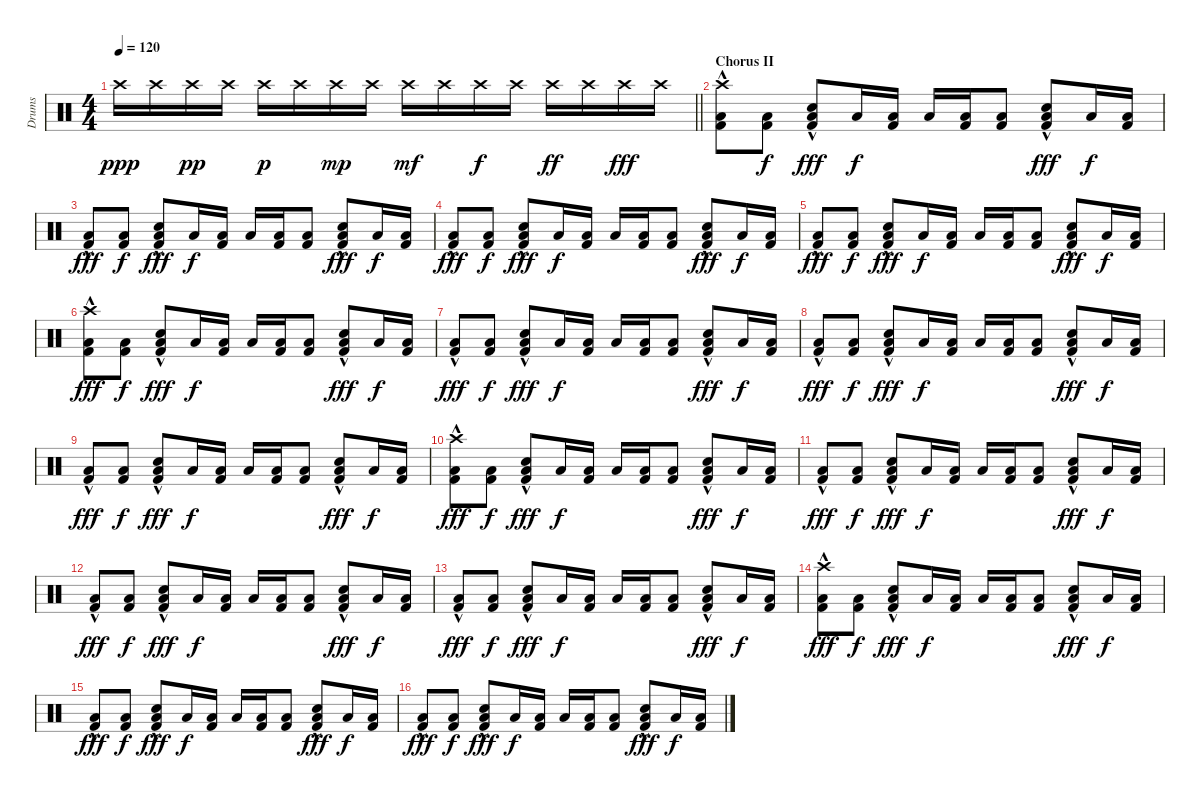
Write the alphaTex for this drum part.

\track ("Drums" "Drums") {instrument percussion}
\staff {score}
\articulation defaults
\ts (4 4)
\tempo 120
\clef neutral
\barLineRight lightlight
\ks c "Crash high (hit)".16{dy ppp} "Crash high (hit)".16 "Crash high (hit)".16{dy pp} "Crash high (hit)".16 "Crash high (hit)".16{dy p} "Crash high (hit)".16 "Crash high (hit)".16{dy mp} "Crash high (hit)".16 "Crash high (hit)".16{dy mf} "Crash high (hit)".16 "Crash high (hit)".16{dy f} "Crash high (hit)".16 "Crash high (hit)".16{dy ff} "Crash high (hit)".16 "Crash high (hit)".16{dy fff} "Crash high (hit)".16
|
\section ("" "Chorus II")
("Crash high (hit)"{hac} "Low Floor Tom (hit)"{hac} "Kick (hit) 2"{hac}).8 ("Low Floor Tom (hit)" "Kick (hit) 2").8{dy f} ("Snare (hit) 2"{hac} "Low Floor Tom (hit)"{hac} "Kick (hit) 2"{hac}).8{dy fff} "Low Tom (hit)".16{dy f} ("Low Floor Tom (hit)" "Kick (hit) 2").16 "Low Tom (hit)".16 ("Low Floor Tom (hit)" "Kick (hit) 2").16 ("Low Tom (hit)" "Kick (hit) 2").8 ("Snare (hit) 2"{hac} "Low Floor Tom (hit)"{hac} "Kick (hit) 2"{hac}).8{dy fff} "Low Floor Tom (hit)".16{dy f} ("Low Floor Tom (hit)" "Kick (hit) 2").16 |
("Low Floor Tom (hit)"{hac} "Kick (hit) 2"{hac}).8{dy fff} ("Low Floor Tom (hit)" "Kick (hit) 2").8{dy f} ("Snare (hit) 2"{hac} "Low Floor Tom (hit)"{hac} "Kick (hit) 2"{hac}).8{dy fff} "Low Tom (hit)".16{dy f} ("Low Floor Tom (hit)" "Kick (hit) 2").16 "Low Tom (hit)".16 ("Low Floor Tom (hit)" "Kick (hit) 2").16 ("Low Tom (hit)" "Kick (hit) 2").8 ("Snare (hit) 2"{hac} "Low Floor Tom (hit)"{hac} "Kick (hit) 2"{hac}).8{dy fff} "Low Floor Tom (hit)".16{dy f} ("Low Floor Tom (hit)" "Kick (hit) 2").16 |
("Low Floor Tom (hit)"{hac} "Kick (hit) 2"{hac}).8{dy fff} ("Low Floor Tom (hit)" "Kick (hit) 2").8{dy f} ("Snare (hit) 2"{hac} "Low Floor Tom (hit)"{hac} "Kick (hit) 2"{hac}).8{dy fff} "Low Tom (hit)".16{dy f} ("Low Floor Tom (hit)" "Kick (hit) 2").16 "Low Tom (hit)".16 ("Low Floor Tom (hit)" "Kick (hit) 2").16 ("Low Tom (hit)" "Kick (hit) 2").8 ("Snare (hit) 2"{hac} "Low Floor Tom (hit)"{hac} "Kick (hit) 2"{hac}).8{dy fff} "Low Floor Tom (hit)".16{dy f} ("Low Floor Tom (hit)" "Kick (hit) 2").16 |
("Low Floor Tom (hit)"{hac} "Kick (hit) 2"{hac}).8{dy fff} ("Low Floor Tom (hit)" "Kick (hit) 2").8{dy f} ("Snare (hit) 2"{hac} "Low Floor Tom (hit)"{hac} "Kick (hit) 2"{hac}).8{dy fff} "Low Tom (hit)".16{dy f} ("Low Floor Tom (hit)" "Kick (hit) 2").16 "Low Tom (hit)".16 ("Low Floor Tom (hit)" "Kick (hit) 2").16 ("Low Tom (hit)" "Kick (hit) 2").8 ("Snare (hit) 2"{hac} "Low Floor Tom (hit)"{hac} "Kick (hit) 2"{hac}).8{dy fff} "Low Floor Tom (hit)".16{dy f} ("Low Floor Tom (hit)" "Kick (hit) 2").16 |
("Crash high (hit)"{hac} "Low Floor Tom (hit)"{hac} "Kick (hit) 2"{hac}).8{dy fff} ("Low Floor Tom (hit)" "Kick (hit) 2").8{dy f} ("Snare (hit) 2"{hac} "Low Floor Tom (hit)"{hac} "Kick (hit) 2"{hac}).8{dy fff} "Low Tom (hit)".16{dy f} ("Low Floor Tom (hit)" "Kick (hit) 2").16 "Low Tom (hit)".16 ("Low Floor Tom (hit)" "Kick (hit) 2").16 ("Low Tom (hit)" "Kick (hit) 2").8 ("Snare (hit) 2"{hac} "Low Floor Tom (hit)"{hac} "Kick (hit) 2"{hac}).8{dy fff} "Low Floor Tom (hit)".16{dy f} ("Low Floor Tom (hit)" "Kick (hit) 2").16 |
("Low Floor Tom (hit)"{hac} "Kick (hit) 2"{hac}).8{dy fff} ("Low Floor Tom (hit)" "Kick (hit) 2").8{dy f} ("Snare (hit) 2"{hac} "Low Floor Tom (hit)"{hac} "Kick (hit) 2"{hac}).8{dy fff} "Low Tom (hit)".16{dy f} ("Low Floor Tom (hit)" "Kick (hit) 2").16 "Low Tom (hit)".16 ("Low Floor Tom (hit)" "Kick (hit) 2").16 ("Low Tom (hit)" "Kick (hit) 2").8 ("Snare (hit) 2"{hac} "Low Floor Tom (hit)"{hac} "Kick (hit) 2"{hac}).8{dy fff} "Low Floor Tom (hit)".16{dy f} ("Low Floor Tom (hit)" "Kick (hit) 2").16 |
("Low Floor Tom (hit)"{hac} "Kick (hit) 2"{hac}).8{dy fff} ("Low Floor Tom (hit)" "Kick (hit) 2").8{dy f} ("Snare (hit) 2"{hac} "Low Floor Tom (hit)"{hac} "Kick (hit) 2"{hac}).8{dy fff} "Low Tom (hit)".16{dy f} ("Low Floor Tom (hit)" "Kick (hit) 2").16 "Low Tom (hit)".16 ("Low Floor Tom (hit)" "Kick (hit) 2").16 ("Low Tom (hit)" "Kick (hit) 2").8 ("Snare (hit) 2"{hac} "Low Floor Tom (hit)"{hac} "Kick (hit) 2"{hac}).8{dy fff} "Low Floor Tom (hit)".16{dy f} ("Low Floor Tom (hit)" "Kick (hit) 2").16 |
("Low Floor Tom (hit)"{hac} "Kick (hit) 2"{hac}).8{dy fff} ("Low Floor Tom (hit)" "Kick (hit) 2").8{dy f} ("Snare (hit) 2"{hac} "Low Floor Tom (hit)"{hac} "Kick (hit) 2"{hac}).8{dy fff} "Low Tom (hit)".16{dy f} ("Low Floor Tom (hit)" "Kick (hit) 2").16 "Low Tom (hit)".16 ("Low Floor Tom (hit)" "Kick (hit) 2").16 ("Low Tom (hit)" "Kick (hit) 2").8 ("Snare (hit) 2"{hac} "Low Floor Tom (hit)"{hac} "Kick (hit) 2"{hac}).8{dy fff} "Low Floor Tom (hit)".16{dy f} ("Low Floor Tom (hit)" "Kick (hit) 2").16 |
("Crash high (hit)"{hac} "Low Floor Tom (hit)"{hac} "Kick (hit) 2"{hac}).8{dy fff} ("Low Floor Tom (hit)" "Kick (hit) 2").8{dy f} ("Snare (hit) 2"{hac} "Low Floor Tom (hit)"{hac} "Kick (hit) 2"{hac}).8{dy fff} "Low Tom (hit)".16{dy f} ("Low Floor Tom (hit)" "Kick (hit) 2").16 "Low Tom (hit)".16 ("Low Floor Tom (hit)" "Kick (hit) 2").16 ("Low Tom (hit)" "Kick (hit) 2").8 ("Snare (hit) 2"{hac} "Low Floor Tom (hit)"{hac} "Kick (hit) 2"{hac}).8{dy fff} "Low Floor Tom (hit)".16{dy f} ("Low Floor Tom (hit)" "Kick (hit) 2").16 |
("Low Floor Tom (hit)"{hac} "Kick (hit) 2"{hac}).8{dy fff} ("Low Floor Tom (hit)" "Kick (hit) 2").8{dy f} ("Snare (hit) 2"{hac} "Low Floor Tom (hit)"{hac} "Kick (hit) 2"{hac}).8{dy fff} "Low Tom (hit)".16{dy f} ("Low Floor Tom (hit)" "Kick (hit) 2").16 "Low Tom (hit)".16 ("Low Floor Tom (hit)" "Kick (hit) 2").16 ("Low Tom (hit)" "Kick (hit) 2").8 ("Snare (hit) 2"{hac} "Low Floor Tom (hit)"{hac} "Kick (hit) 2"{hac}).8{dy fff} "Low Floor Tom (hit)".16{dy f} ("Low Floor Tom (hit)" "Kick (hit) 2").16 |
("Low Floor Tom (hit)"{hac} "Kick (hit) 2"{hac}).8{dy fff} ("Low Floor Tom (hit)" "Kick (hit) 2").8{dy f} ("Snare (hit) 2"{hac} "Low Floor Tom (hit)"{hac} "Kick (hit) 2"{hac}).8{dy fff} "Low Tom (hit)".16{dy f} ("Low Floor Tom (hit)" "Kick (hit) 2").16 "Low Tom (hit)".16 ("Low Floor Tom (hit)" "Kick (hit) 2").16 ("Low Tom (hit)" "Kick (hit) 2").8 ("Snare (hit) 2"{hac} "Low Floor Tom (hit)"{hac} "Kick (hit) 2"{hac}).8{dy fff} "Low Floor Tom (hit)".16{dy f} ("Low Floor Tom (hit)" "Kick (hit) 2").16 |
("Low Floor Tom (hit)"{hac} "Kick (hit) 2"{hac}).8{dy fff} ("Low Floor Tom (hit)" "Kick (hit) 2").8{dy f} ("Snare (hit) 2"{hac} "Low Floor Tom (hit)"{hac} "Kick (hit) 2"{hac}).8{dy fff} "Low Tom (hit)".16{dy f} ("Low Floor Tom (hit)" "Kick (hit) 2").16 "Low Tom (hit)".16 ("Low Floor Tom (hit)" "Kick (hit) 2").16 ("Low Tom (hit)" "Kick (hit) 2").8 ("Snare (hit) 2"{hac} "Low Floor Tom (hit)"{hac} "Kick (hit) 2"{hac}).8{dy fff} "Low Floor Tom (hit)".16{dy f} ("Low Floor Tom (hit)" "Kick (hit) 2").16 |
("Crash high (hit)"{hac} "Low Floor Tom (hit)"{hac} "Kick (hit) 2"{hac}).8{dy fff} ("Low Floor Tom (hit)" "Kick (hit) 2").8{dy f} ("Snare (hit) 2"{hac} "Low Floor Tom (hit)"{hac} "Kick (hit) 2"{hac}).8{dy fff} "Low Tom (hit)".16{dy f} ("Low Floor Tom (hit)" "Kick (hit) 2").16 "Low Tom (hit)".16 ("Low Floor Tom (hit)" "Kick (hit) 2").16 ("Low Tom (hit)" "Kick (hit) 2").8 ("Snare (hit) 2"{hac} "Low Floor Tom (hit)"{hac} "Kick (hit) 2"{hac}).8{dy fff} "Low Floor Tom (hit)".16{dy f} ("Low Floor Tom (hit)" "Kick (hit) 2").16 |
("Low Floor Tom (hit)"{hac} "Kick (hit) 2"{hac}).8{dy fff} ("Low Floor Tom (hit)" "Kick (hit) 2").8{dy f} ("Snare (hit) 2"{hac} "Low Floor Tom (hit)"{hac} "Kick (hit) 2"{hac}).8{dy fff} "Low Tom (hit)".16{dy f} ("Low Floor Tom (hit)" "Kick (hit) 2").16 "Low Tom (hit)".16 ("Low Floor Tom (hit)" "Kick (hit) 2").16 ("Low Tom (hit)" "Kick (hit) 2").8 ("Snare (hit) 2"{hac} "Low Floor Tom (hit)"{hac} "Kick (hit) 2"{hac}).8{dy fff} "Low Floor Tom (hit)".16{dy f} ("Low Floor Tom (hit)" "Kick (hit) 2").16 |
("Low Floor Tom (hit)"{hac} "Kick (hit) 2"{hac}).8{dy fff} ("Low Floor Tom (hit)" "Kick (hit) 2").8{dy f} ("Snare (hit) 2"{hac} "Low Floor Tom (hit)"{hac} "Kick (hit) 2"{hac}).8{dy fff} "Low Tom (hit)".16{dy f} ("Low Floor Tom (hit)" "Kick (hit) 2").16 "Low Tom (hit)".16 ("Low Floor Tom (hit)" "Kick (hit) 2").16 ("Low Tom (hit)" "Kick (hit) 2").8 ("Snare (hit) 2"{hac} "Low Floor Tom (hit)"{hac} "Kick (hit) 2"{hac}).8{dy fff} "Low Floor Tom (hit)".16{dy f} ("Low Floor Tom (hit)" "Kick (hit) 2").16
